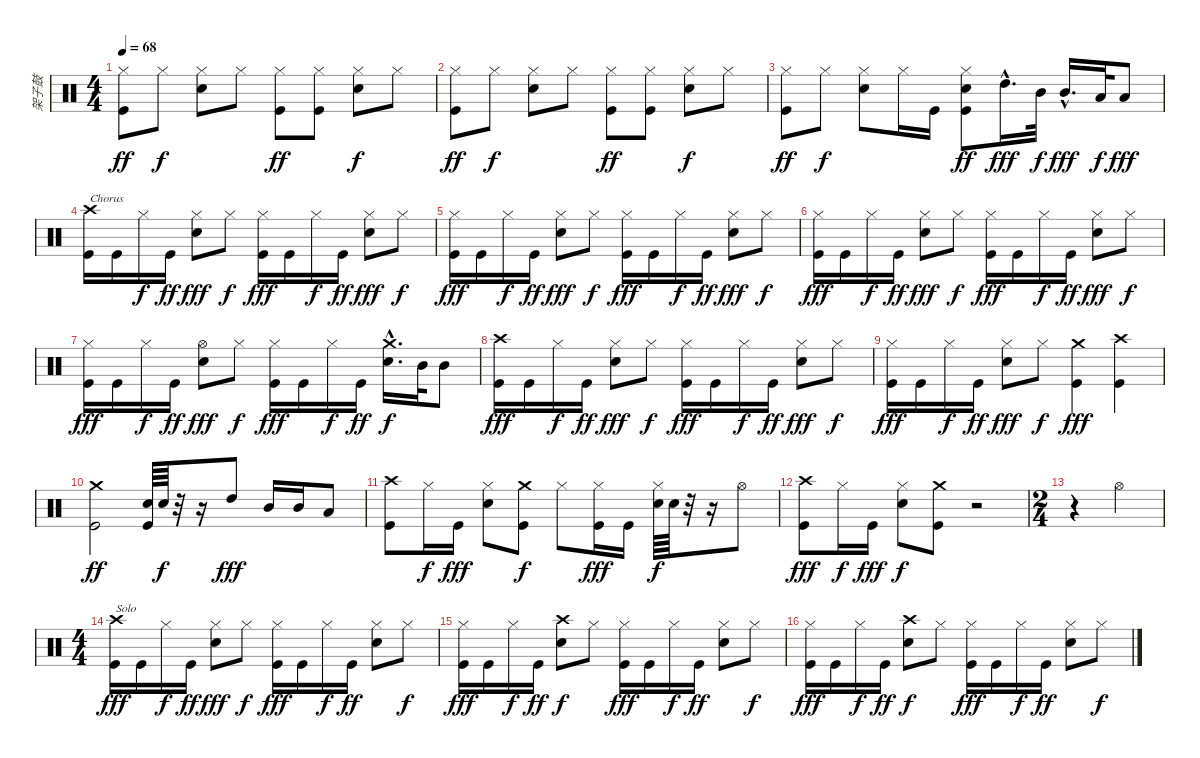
\track ("架子鼓" "架子鼓") {instrument percussion}
\staff {score}
\articulation defaults
\ts (4 4)
\tempo 68
\clef neutral
\ks c
("Hi-Hat (closed)" "Kick (hit)").8{dy ff} "Hi-Hat (closed)".8{dy f} ("Hi-Hat (closed)" "Snare (hit) 2").8 "Hi-Hat (closed)".8 ("Hi-Hat (closed)" "Kick (hit)").8{dy ff} ("Hi-Hat (closed)" "Kick (hit)").8 ("Hi-Hat (closed)" "Snare (hit) 2").8{dy f} "Hi-Hat (closed)".8 |
("Hi-Hat (closed)" "Kick (hit)").8{dy ff} "Hi-Hat (closed)".8{dy f} ("Hi-Hat (closed)" "Snare (hit) 2").8 "Hi-Hat (closed)".8 ("Hi-Hat (closed)" "Kick (hit)").8{dy ff} ("Hi-Hat (closed)" "Kick (hit)").8 ("Hi-Hat (closed)" "Snare (hit) 2").8{dy f} "Hi-Hat (closed)".8 |
("Hi-Hat (closed)" "Kick (hit)").8{dy ff} "Hi-Hat (closed)".8{dy f} ("Hi-Hat (closed)" "Snare (hit) 2").8 "Hi-Hat (closed)".16 "Kick (hit)".16 ("Hi-Hat (closed)" "Snare (hit) 2" "Kick (hit)").8{dy ff} "High Tom (hit)"{hac}.16{d dy fff} "Mid Tom (hit)".32{dy f} "Mid Tom (hit)"{hac}.16{d dy fff} "Low Tom (hit)".32{dy f} "Low Tom (hit)".8{dy fff} |
("Crash high (hit)" "Kick (hit)").16{txt "Chorus"} "Kick (hit)".16 "Hi-Hat (closed)".16{dy f} "Kick (hit)".16{dy ff} ("Hi-Hat (closed)" "Snare (hit) 2").8{dy fff} "Hi-Hat (closed)".8{dy f} ("Hi-Hat (closed)" "Kick (hit)").16{dy fff} "Kick (hit)".16 "Hi-Hat (closed)".16{dy f} "Kick (hit)".16{dy ff} ("Hi-Hat (closed)" "Snare (hit) 2").8{dy fff} "Hi-Hat (closed)".8{dy f} |
("Hi-Hat (closed)" "Kick (hit)").16{dy fff} "Kick (hit)".16 "Hi-Hat (closed)".16{dy f} "Kick (hit)".16{dy ff} ("Hi-Hat (closed)" "Snare (hit) 2").8{dy fff} "Hi-Hat (closed)".8{dy f} ("Hi-Hat (closed)" "Kick (hit)").16{dy fff} "Kick (hit)".16 "Hi-Hat (closed)".16{dy f} "Kick (hit)".16{dy ff} ("Hi-Hat (closed)" "Snare (hit) 2").8{dy fff} "Hi-Hat (closed)".8{dy f} |
("Hi-Hat (closed)" "Kick (hit)").16{dy fff} "Kick (hit)".16 "Hi-Hat (closed)".16{dy f} "Kick (hit)".16{dy ff} ("Hi-Hat (closed)" "Snare (hit) 2").8{dy fff} "Hi-Hat (closed)".8{dy f} ("Hi-Hat (closed)" "Kick (hit)").16{dy fff} "Kick (hit)".16 "Hi-Hat (closed)".16{dy f} "Kick (hit)".16{dy ff} ("Hi-Hat (closed)" "Snare (hit) 2").8{dy fff} "Hi-Hat (closed)".8{dy f} |
("Hi-Hat (closed)" "Kick (hit)").16{dy fff} "Kick (hit)".16 "Hi-Hat (closed)".16{dy f} "Kick (hit)".16{dy ff} ("Hi-Hat (open)" "Snare (hit) 2").8{dy fff} "Hi-Hat (closed)".8{dy f} ("Hi-Hat (closed)" "Kick (hit)").16{dy fff} "Kick (hit)".16 "Hi-Hat (closed)".16{dy f} "Kick (hit)".16{dy ff} ("Crash medium (hit)"{hac} "Snare (hit) 2"{hac}).16{d dy f} "Mid Tom (hit)".32 "Mid Tom (hit)".8 |
("Crash high (hit)" "Kick (hit)").16{dy fff} "Kick (hit)".16 "Hi-Hat (closed)".16{dy f} "Kick (hit)".16{dy ff} ("Hi-Hat (closed)" "Snare (hit) 2").8{dy fff} "Hi-Hat (closed)".8{dy f} ("Hi-Hat (closed)" "Kick (hit)").16{dy fff} "Kick (hit)".16 "Hi-Hat (closed)".16{dy f} "Kick (hit)".16{dy ff} ("Hi-Hat (closed)" "Snare (hit) 2").8{dy fff} "Hi-Hat (closed)".8{dy f} |
("Hi-Hat (closed)" "Kick (hit)").16{dy fff} "Kick (hit)".16 "Hi-Hat (closed)".16{dy f} "Kick (hit)".16{dy ff} ("Hi-Hat (closed)" "Snare (hit) 2").8{dy fff} "Hi-Hat (closed)".8{dy f} ("Crash medium (hit)" "Kick (hit)").4{dy fff} ("Crash high (hit)" "Kick (hit)").4 |
("Crash medium (hit)" "Kick (hit)").2{dy ff} ("Snare (hit) 2" "Kick (hit)").64 "Snare (hit) 2".64{dy f} r.32 r.16 "High Tom (hit)".8{dy fff} "Mid Tom (hit)".16 "Mid Tom (hit)".16 "Low Tom (hit)".8 |
("Crash high (hit)" "Kick (hit)").8 "Hi-Hat (closed)".16{dy f} "Kick (hit)".16{dy fff} ("Hi-Hat (closed)" "Snare (hit) 2").8 ("Crash medium (hit)" "Kick (hit)").8{dy f} "Hi-Hat (closed)".8 ("Hi-Hat (closed)" "Kick (hit)").16{dy fff} "Kick (hit)".16 ("Hi-Hat (closed)" "Snare (hit) 2").64{dy f} "Snare (hit) 2".64 r.32 r.16 "Hi-Hat (open)".8 |
("Crash high (hit)" "Kick (hit)").8{dy fff} "Hi-Hat (closed)".16{dy f} "Kick (hit)".16{dy fff} ("Hi-Hat (closed)" "Snare (hit) 2").8{dy f} ("Crash medium (hit)" "Kick (hit)").8 r.2 |
\ts (2 4)
r.4 "Hi-Hat (open)".4 |
\ts (4 4)
("Crash high (hit)" "Kick (hit)").16{txt "Solo" dy fff} "Kick (hit)".16 "Hi-Hat (closed)".16{dy f} "Kick (hit)".16{dy ff} ("Hi-Hat (closed)" "Snare (hit) 2").8{dy fff} "Hi-Hat (closed)".8{dy f} ("Hi-Hat (closed)" "Kick (hit)").16{dy fff} "Kick (hit)".16 "Hi-Hat (closed)".16{dy f} "Kick (hit)".16{dy ff} ("Hi-Hat (closed)" "Snare (hit) 2").8 "Hi-Hat (closed)".8{dy f} |
("Hi-Hat (closed)" "Kick (hit)").16{dy fff} "Kick (hit)".16 "Hi-Hat (closed)".16{dy f} "Kick (hit)".16{dy ff} ("Crash high (hit)" "Snare (hit) 2").8{dy f} "Hi-Hat (closed)".8 ("Hi-Hat (closed)" "Kick (hit)").16{dy fff} "Kick (hit)".16 "Hi-Hat (closed)".16{dy f} "Kick (hit)".16{dy ff} ("Hi-Hat (closed)" "Snare (hit) 2").8 "Hi-Hat (closed)".8{dy f} |
("Hi-Hat (closed)" "Kick (hit)").16{dy fff} "Kick (hit)".16 "Hi-Hat (closed)".16{dy f} "Kick (hit)".16{dy ff} ("Crash high (hit)" "Snare (hit) 2").8{dy f} "Hi-Hat (closed)".8 ("Hi-Hat (closed)" "Kick (hit)").16{dy fff} "Kick (hit)".16 "Hi-Hat (closed)".16{dy f} "Kick (hit)".16{dy ff} ("Hi-Hat (closed)" "Snare (hit) 2").8 "Hi-Hat (closed)".8{dy f}
